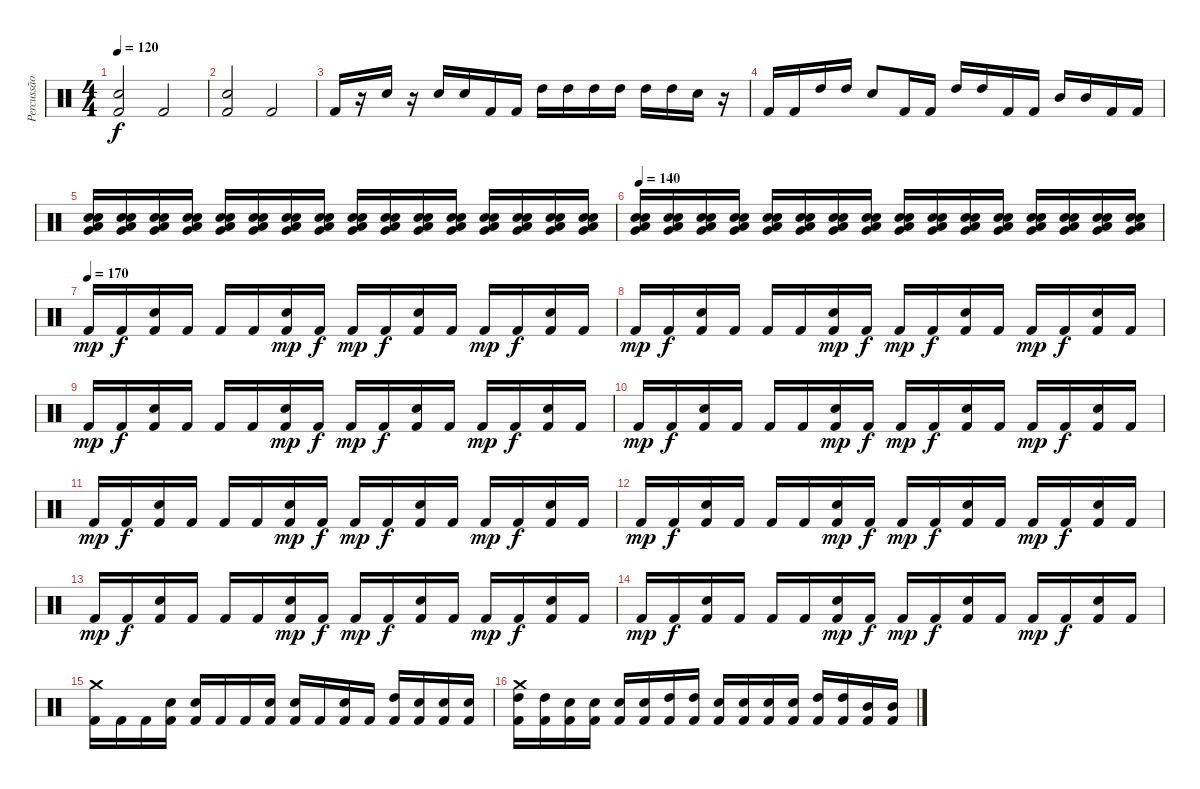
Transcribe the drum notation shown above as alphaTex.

\track ("Percussão" "Percussão") {instrument percussion}
\staff {score}
\articulation defaults
\ts (4 4)
\tempo 120
\clef neutral
\ks c
("Snare (hit) 2" "Kick (hit) 2").2{dy f} "Kick (hit) 2".2 |
("Snare (hit) 2" "Kick (hit) 2").2 "Kick (hit) 2".2 |
"Kick (hit) 2".16 r.16 "Electric Snare (hit)".16 r.16 "Electric Snare (hit)".16 "Electric Snare (hit)".16 "Kick (hit) 2".16 "Kick (hit) 2".16 "High Tom (hit)".16 "High Tom (hit)".16 "High Tom (hit)".16 "High Tom (hit)".16 "High Tom (hit)".16 "High Tom (hit)".16 "Snare (hit) 2".16 r.16 |
"Kick (hit) 2".16 "Kick (hit) 2".16 "High Tom (hit)".16 "High Tom (hit)".16 "Electric Snare (hit)".8 "Kick (hit) 2".16 "Kick (hit) 2".16 "High Tom (hit)".16 "High Tom (hit)".16 "Kick (hit) 2".16 "Kick (hit) 2".16 "Mid Tom (hit)".16 "Mid Tom (hit)".16 "Kick (hit) 2".16 "Kick (hit) 2".16 |
("Electric Snare (hit)" "Snare (hit) 2" "Low Floor Tom (hit)" "Very Low Tom (hit)").16 ("Electric Snare (hit)" "Snare (hit) 2" "Low Floor Tom (hit)" "Very Low Tom (hit)").16 ("Electric Snare (hit)" "Snare (hit) 2" "Low Floor Tom (hit)" "Very Low Tom (hit)").16 ("Electric Snare (hit)" "Snare (hit) 2" "Low Floor Tom (hit)" "Very Low Tom (hit)").16 ("Electric Snare (hit)" "Snare (hit) 2" "Low Floor Tom (hit)" "Very Low Tom (hit)").16 ("Electric Snare (hit)" "Snare (hit) 2" "Low Floor Tom (hit)" "Very Low Tom (hit)").16 ("Electric Snare (hit)" "Snare (hit) 2" "Low Floor Tom (hit)" "Very Low Tom (hit)").16 ("Electric Snare (hit)" "Snare (hit) 2" "Low Floor Tom (hit)" "Very Low Tom (hit)").16 ("Electric Snare (hit)" "Snare (hit) 2" "Low Floor Tom (hit)" "Very Low Tom (hit)").16 ("Electric Snare (hit)" "Snare (hit) 2" "Low Floor Tom (hit)" "Very Low Tom (hit)").16 ("Electric Snare (hit)" "Snare (hit) 2" "Low Floor Tom (hit)" "Very Low Tom (hit)").16 ("Electric Snare (hit)" "Snare (hit) 2" "Low Floor Tom (hit)" "Very Low Tom (hit)").16 ("Electric Snare (hit)" "Snare (hit) 2" "Low Floor Tom (hit)" "Very Low Tom (hit)").16 ("Electric Snare (hit)" "Snare (hit) 2" "Low Floor Tom (hit)" "Very Low Tom (hit)").16 ("Electric Snare (hit)" "Snare (hit) 2" "Low Floor Tom (hit)" "Very Low Tom (hit)").16 ("Electric Snare (hit)" "Snare (hit) 2" "Low Floor Tom (hit)" "Very Low Tom (hit)").16 |
\tempo 140
("Electric Snare (hit)" "Snare (hit) 2" "Low Floor Tom (hit)" "Very Low Tom (hit)").16 ("Electric Snare (hit)" "Snare (hit) 2" "Low Floor Tom (hit)" "Very Low Tom (hit)").16 ("Electric Snare (hit)" "Snare (hit) 2" "Low Floor Tom (hit)" "Very Low Tom (hit)").16 ("Electric Snare (hit)" "Snare (hit) 2" "Low Floor Tom (hit)" "Very Low Tom (hit)").16 ("Electric Snare (hit)" "Snare (hit) 2" "Low Floor Tom (hit)" "Very Low Tom (hit)").16 ("Electric Snare (hit)" "Snare (hit) 2" "Low Floor Tom (hit)" "Very Low Tom (hit)").16 ("Electric Snare (hit)" "Snare (hit) 2" "Low Floor Tom (hit)" "Very Low Tom (hit)").16 ("Electric Snare (hit)" "Snare (hit) 2" "Low Floor Tom (hit)" "Very Low Tom (hit)").16 ("Electric Snare (hit)" "Snare (hit) 2" "Low Floor Tom (hit)" "Very Low Tom (hit)").16 ("Electric Snare (hit)" "Snare (hit) 2" "Low Floor Tom (hit)" "Very Low Tom (hit)").16 ("Electric Snare (hit)" "Snare (hit) 2" "Low Floor Tom (hit)" "Very Low Tom (hit)").16 ("Electric Snare (hit)" "Snare (hit) 2" "Low Floor Tom (hit)" "Very Low Tom (hit)").16 ("Electric Snare (hit)" "Snare (hit) 2" "Low Floor Tom (hit)" "Very Low Tom (hit)").16 ("Electric Snare (hit)" "Snare (hit) 2" "Low Floor Tom (hit)" "Very Low Tom (hit)").16 ("Electric Snare (hit)" "Snare (hit) 2" "Low Floor Tom (hit)" "Very Low Tom (hit)").16 ("Electric Snare (hit)" "Snare (hit) 2" "Low Floor Tom (hit)" "Very Low Tom (hit)").16 |
\tempo (170)
"Kick (hit) 2".16{dy mp} "Kick (hit) 2".16{dy f} ("Electric Snare (hit)" "Kick (hit) 2").16 "Kick (hit) 2".16 "Kick (hit) 2".16 "Kick (hit) 2".16 ("Electric Snare (hit)" "Kick (hit) 2").16{dy mp} "Kick (hit) 2".16{dy f} "Kick (hit) 2".16{dy mp} "Kick (hit) 2".16{dy f} ("Electric Snare (hit)" "Kick (hit) 2").16 "Kick (hit) 2".16 "Kick (hit) 2".16{dy mp} "Kick (hit) 2".16{dy f} ("Electric Snare (hit)" "Kick (hit) 2").16 "Kick (hit) 2".16 |
"Kick (hit) 2".16{dy mp} "Kick (hit) 2".16{dy f} ("Electric Snare (hit)" "Kick (hit) 2").16 "Kick (hit) 2".16 "Kick (hit) 2".16 "Kick (hit) 2".16 ("Electric Snare (hit)" "Kick (hit) 2").16{dy mp} "Kick (hit) 2".16{dy f} "Kick (hit) 2".16{dy mp} "Kick (hit) 2".16{dy f} ("Electric Snare (hit)" "Kick (hit) 2").16 "Kick (hit) 2".16 "Kick (hit) 2".16{dy mp} "Kick (hit) 2".16{dy f} ("Electric Snare (hit)" "Kick (hit) 2").16 "Kick (hit) 2".16 |
"Kick (hit) 2".16{dy mp} "Kick (hit) 2".16{dy f} ("Electric Snare (hit)" "Kick (hit) 2").16 "Kick (hit) 2".16 "Kick (hit) 2".16 "Kick (hit) 2".16 ("Electric Snare (hit)" "Kick (hit) 2").16{dy mp} "Kick (hit) 2".16{dy f} "Kick (hit) 2".16{dy mp} "Kick (hit) 2".16{dy f} ("Electric Snare (hit)" "Kick (hit) 2").16 "Kick (hit) 2".16 "Kick (hit) 2".16{dy mp} "Kick (hit) 2".16{dy f} ("Electric Snare (hit)" "Kick (hit) 2").16 "Kick (hit) 2".16 |
"Kick (hit) 2".16{dy mp} "Kick (hit) 2".16{dy f} ("Electric Snare (hit)" "Kick (hit) 2").16 "Kick (hit) 2".16 "Kick (hit) 2".16 "Kick (hit) 2".16 ("Electric Snare (hit)" "Kick (hit) 2").16{dy mp} "Kick (hit) 2".16{dy f} "Kick (hit) 2".16{dy mp} "Kick (hit) 2".16{dy f} ("Electric Snare (hit)" "Kick (hit) 2").16 "Kick (hit) 2".16 "Kick (hit) 2".16{dy mp} "Kick (hit) 2".16{dy f} ("Electric Snare (hit)" "Kick (hit) 2").16 "Kick (hit) 2".16 |
"Kick (hit) 2".16{dy mp} "Kick (hit) 2".16{dy f} ("Electric Snare (hit)" "Kick (hit) 2").16 "Kick (hit) 2".16 "Kick (hit) 2".16 "Kick (hit) 2".16 ("Electric Snare (hit)" "Kick (hit) 2").16{dy mp} "Kick (hit) 2".16{dy f} "Kick (hit) 2".16{dy mp} "Kick (hit) 2".16{dy f} ("Electric Snare (hit)" "Kick (hit) 2").16 "Kick (hit) 2".16 "Kick (hit) 2".16{dy mp} "Kick (hit) 2".16{dy f} ("Electric Snare (hit)" "Kick (hit) 2").16 "Kick (hit) 2".16 |
"Kick (hit) 2".16{dy mp} "Kick (hit) 2".16{dy f} ("Electric Snare (hit)" "Kick (hit) 2").16 "Kick (hit) 2".16 "Kick (hit) 2".16 "Kick (hit) 2".16 ("Electric Snare (hit)" "Kick (hit) 2").16{dy mp} "Kick (hit) 2".16{dy f} "Kick (hit) 2".16{dy mp} "Kick (hit) 2".16{dy f} ("Electric Snare (hit)" "Kick (hit) 2").16 "Kick (hit) 2".16 "Kick (hit) 2".16{dy mp} "Kick (hit) 2".16{dy f} ("Electric Snare (hit)" "Kick (hit) 2").16 "Kick (hit) 2".16 |
"Kick (hit) 2".16{dy mp} "Kick (hit) 2".16{dy f} ("Electric Snare (hit)" "Kick (hit) 2").16 "Kick (hit) 2".16 "Kick (hit) 2".16 "Kick (hit) 2".16 ("Electric Snare (hit)" "Kick (hit) 2").16{dy mp} "Kick (hit) 2".16{dy f} "Kick (hit) 2".16{dy mp} "Kick (hit) 2".16{dy f} ("Electric Snare (hit)" "Kick (hit) 2").16 "Kick (hit) 2".16 "Kick (hit) 2".16{dy mp} "Kick (hit) 2".16{dy f} ("Electric Snare (hit)" "Kick (hit) 2").16 "Kick (hit) 2".16 |
"Kick (hit) 2".16{dy mp} "Kick (hit) 2".16{dy f} ("Electric Snare (hit)" "Kick (hit) 2").16 "Kick (hit) 2".16 "Kick (hit) 2".16 "Kick (hit) 2".16 ("Electric Snare (hit)" "Kick (hit) 2").16{dy mp} "Kick (hit) 2".16{dy f} "Kick (hit) 2".16{dy mp} "Kick (hit) 2".16{dy f} ("Electric Snare (hit)" "Kick (hit) 2").16 "Kick (hit) 2".16 "Kick (hit) 2".16{dy mp} "Kick (hit) 2".16{dy f} ("Electric Snare (hit)" "Kick (hit) 2").16 "Kick (hit) 2".16 |
("Crash medium (hit)" "Kick (hit) 2").16 "Kick (hit) 2".16 "Kick (hit) 2".16 ("Electric Snare (hit)" "Kick (hit) 2").16 ("Electric Snare (hit)" "Kick (hit) 2").16 "Kick (hit) 2".16 "Kick (hit) 2".16 ("Electric Snare (hit)" "Kick (hit) 2").16 ("Electric Snare (hit)" "Kick (hit) 2").16 "Kick (hit) 2".16 ("Electric Snare (hit)" "Kick (hit) 2").16 "Kick (hit) 2".16 ("High Tom (hit)" "Kick (hit) 2").16 ("Electric Snare (hit)" "Kick (hit) 2").16 ("Electric Snare (hit)" "Kick (hit) 2").16 ("Electric Snare (hit)" "Kick (hit) 2").16 |
("Crash medium (hit)" "High Tom (hit)" "Kick (hit) 2").16 ("High Tom (hit)" "Kick (hit) 2").16 ("Electric Snare (hit)" "Kick (hit) 2").16 ("Electric Snare (hit)" "Kick (hit) 2").16 ("Electric Snare (hit)" "Kick (hit) 2").16 ("Electric Snare (hit)" "Kick (hit) 2").16 ("High Tom (hit)" "Kick (hit) 2").16 ("High Tom (hit)" "Kick (hit) 2").16 ("Electric Snare (hit)" "Kick (hit) 2").16 ("Electric Snare (hit)" "Kick (hit) 2").16 ("Electric Snare (hit)" "Kick (hit) 2").16 ("Electric Snare (hit)" "Kick (hit) 2").16 ("High Tom (hit)" "Kick (hit) 2").16 ("High Tom (hit)" "Kick (hit) 2").16 ("Mid Tom (hit)" "Kick (hit) 2").16 ("Mid Tom (hit)" "Kick (hit) 2").16
